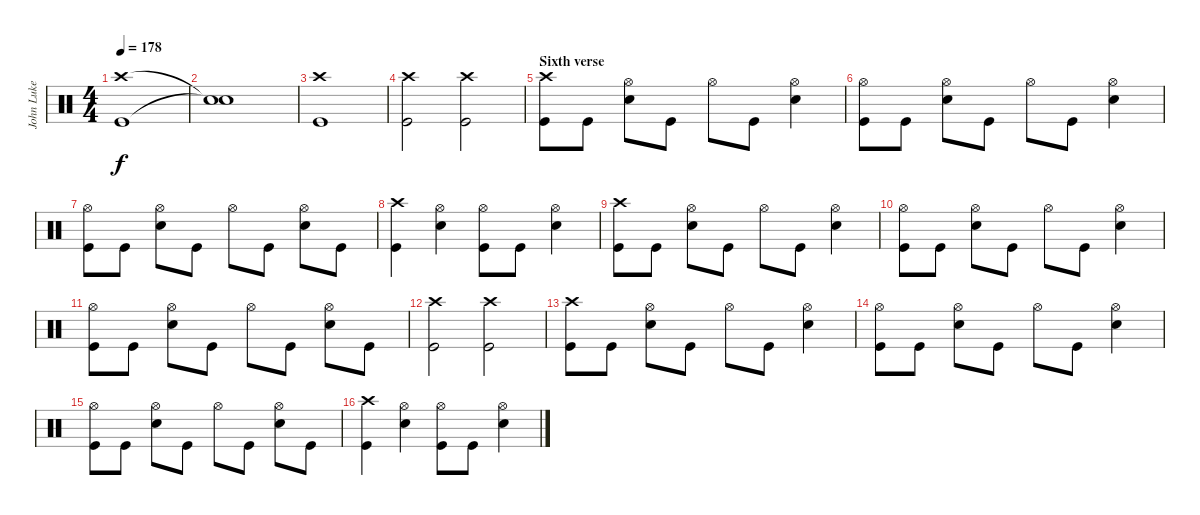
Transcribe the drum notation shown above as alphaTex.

\track ("John Luke (Drums)" "John Luke ") {instrument percussion}
\staff {score}
\articulation defaults
\ts (4 4)
\tempo 178
\clef neutral
\ks c
("Crash high (hit)" "Kick (hit)").1{dy f} |
("Snare (hit)"{t} "Snare (hit)"{t}).1 |
("Crash high (hit)" "Kick (hit)").1 |
("Crash high (hit)" "Kick (hit)").2 ("Crash high (hit)" "Kick (hit)").2 |
\section ("" "Sixth verse")
("Crash high (hit)" "Kick (hit)").8 "Kick (hit)".8 ("Hi-Hat (open)" "Electric Snare (hit)").8 "Kick (hit)".8 "Hi-Hat (open)".8 "Kick (hit)".8 ("Hi-Hat (open)" "Electric Snare (hit)").4 |
("Hi-Hat (open)" "Kick (hit)").8 "Kick (hit)".8 ("Hi-Hat (open)" "Electric Snare (hit)").8 "Kick (hit)".8 "Hi-Hat (open)".8 "Kick (hit)".8 ("Hi-Hat (open)" "Electric Snare (hit)").4 |
("Hi-Hat (open)" "Kick (hit)").8 "Kick (hit)".8 ("Hi-Hat (open)" "Electric Snare (hit)").8 "Kick (hit)".8 "Hi-Hat (open)".8 "Kick (hit)".8 ("Hi-Hat (open)" "Electric Snare (hit)").8 "Kick (hit)".8 |
("Crash high (hit)" "Kick (hit)").4 ("Hi-Hat (open)" "Electric Snare (hit)").4 ("Hi-Hat (open)" "Kick (hit)").8 "Kick (hit)".8 ("Hi-Hat (open)" "Electric Snare (hit)").4 |
("Crash high (hit)" "Kick (hit)").8 "Kick (hit)".8 ("Hi-Hat (open)" "Electric Snare (hit)").8 "Kick (hit)".8 "Hi-Hat (open)".8 "Kick (hit)".8 ("Hi-Hat (open)" "Electric Snare (hit)").4 |
("Hi-Hat (open)" "Kick (hit)").8 "Kick (hit)".8 ("Hi-Hat (open)" "Electric Snare (hit)").8 "Kick (hit)".8 "Hi-Hat (open)".8 "Kick (hit)".8 ("Hi-Hat (open)" "Electric Snare (hit)").4 |
("Hi-Hat (open)" "Kick (hit)").8 "Kick (hit)".8 ("Hi-Hat (open)" "Electric Snare (hit)").8 "Kick (hit)".8 "Hi-Hat (open)".8 "Kick (hit)".8 ("Hi-Hat (open)" "Electric Snare (hit)").8 "Kick (hit)".8 |
("Crash high (hit)" "Kick (hit)").2 ("Crash high (hit)" "Kick (hit)").2 |
("Crash high (hit)" "Kick (hit)").8 "Kick (hit)".8 ("Hi-Hat (open)" "Electric Snare (hit)").8 "Kick (hit)".8 "Hi-Hat (open)".8 "Kick (hit)".8 ("Hi-Hat (open)" "Electric Snare (hit)").4 |
("Hi-Hat (open)" "Kick (hit)").8 "Kick (hit)".8 ("Hi-Hat (open)" "Electric Snare (hit)").8 "Kick (hit)".8 "Hi-Hat (open)".8 "Kick (hit)".8 ("Hi-Hat (open)" "Electric Snare (hit)").4 |
("Hi-Hat (open)" "Kick (hit)").8 "Kick (hit)".8 ("Hi-Hat (open)" "Electric Snare (hit)").8 "Kick (hit)".8 "Hi-Hat (open)".8 "Kick (hit)".8 ("Hi-Hat (open)" "Electric Snare (hit)").8 "Kick (hit)".8 |
("Crash high (hit)" "Kick (hit)").4 ("Hi-Hat (open)" "Electric Snare (hit)").4 ("Hi-Hat (open)" "Kick (hit)").8 "Kick (hit)".8 ("Hi-Hat (open)" "Electric Snare (hit)").4
